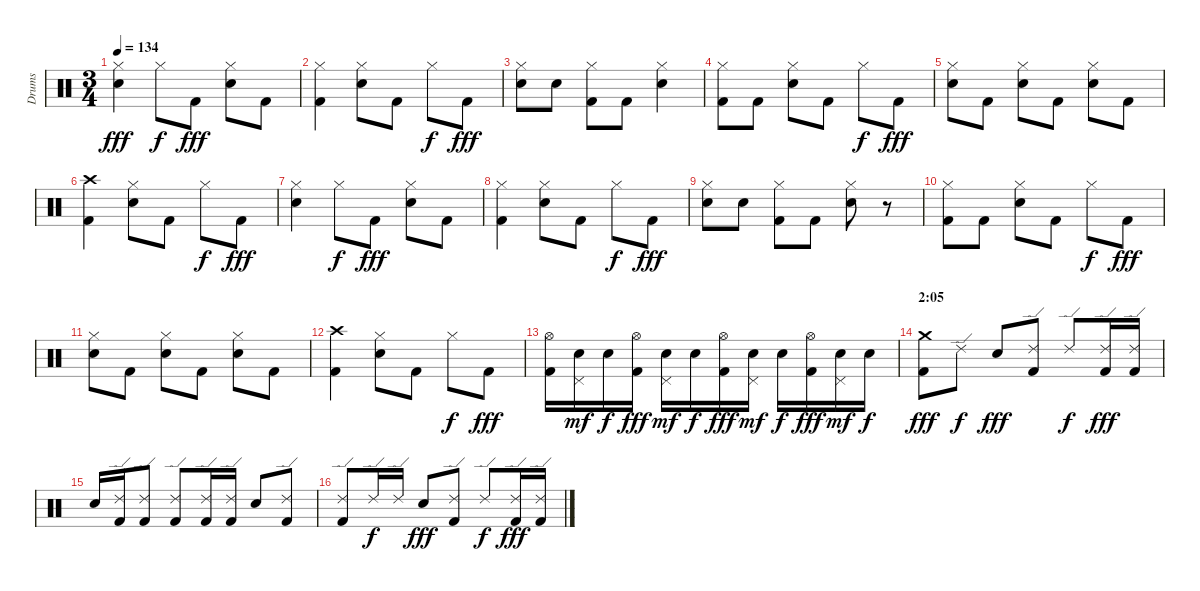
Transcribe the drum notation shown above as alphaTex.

\track ("Drums" "Drums") {instrument percussion}
\staff {score}
\articulation defaults
\ts (3 4)
\tempo 134
\clef neutral
\ks c
("Hi-Hat (closed)" "Snare (hit) 2").4{dy fff} "Hi-Hat (closed)".8{dy f} "Kick (hit) 2".8{dy fff} ("Hi-Hat (closed)" "Snare (hit) 2").8 "Kick (hit) 2".8 |
("Hi-Hat (closed)" "Kick (hit) 2").4 ("Hi-Hat (closed)" "Snare (hit) 2").8 "Kick (hit) 2".8 "Hi-Hat (closed)".8{dy f} "Kick (hit) 2".8{dy fff} |
("Hi-Hat (closed)" "Snare (hit) 2").8 "Snare (hit) 2".8 ("Hi-Hat (closed)" "Kick (hit) 2").8 "Kick (hit) 2".8 ("Hi-Hat (closed)" "Snare (hit) 2").4 |
("Hi-Hat (closed)" "Kick (hit) 2").8 "Kick (hit) 2".8 ("Hi-Hat (closed)" "Snare (hit) 2").8 "Kick (hit) 2".8 "Hi-Hat (closed)".8{dy f} "Kick (hit) 2".8{dy fff} |
("Hi-Hat (closed)" "Snare (hit) 2").8 "Kick (hit) 2".8 ("Hi-Hat (closed)" "Snare (hit) 2").8 "Kick (hit) 2".8 ("Hi-Hat (closed)" "Snare (hit) 2").8 "Kick (hit) 2".8 |
("Kick (hit) 2" "Crash high (hit)").4 ("Hi-Hat (closed)" "Snare (hit) 2").8 "Kick (hit) 2".8 "Hi-Hat (closed)".8{dy f} "Kick (hit) 2".8{dy fff} |
("Hi-Hat (closed)" "Snare (hit) 2").4 "Hi-Hat (closed)".8{dy f} "Kick (hit) 2".8{dy fff} ("Hi-Hat (closed)" "Snare (hit) 2").8 "Kick (hit) 2".8 |
("Hi-Hat (closed)" "Kick (hit) 2").4 ("Hi-Hat (closed)" "Snare (hit) 2").8 "Kick (hit) 2".8 "Hi-Hat (closed)".8{dy f} "Kick (hit) 2".8{dy fff} |
("Hi-Hat (closed)" "Snare (hit) 2").8 "Snare (hit) 2".8 ("Hi-Hat (closed)" "Kick (hit) 2").8 "Kick (hit) 2".8 ("Hi-Hat (closed)" "Snare (hit) 2").8 r.8 |
("Hi-Hat (closed)" "Kick (hit) 2").8 "Kick (hit) 2".8 ("Hi-Hat (closed)" "Snare (hit) 2").8 "Kick (hit) 2".8 "Hi-Hat (closed)".8{dy f} "Kick (hit) 2".8{dy fff} |
("Hi-Hat (closed)" "Snare (hit) 2").8 "Kick (hit) 2".8 ("Hi-Hat (closed)" "Snare (hit) 2").8 "Kick (hit) 2".8 ("Hi-Hat (closed)" "Snare (hit) 2").8 "Kick (hit) 2".8 |
("Kick (hit) 2" "Crash high (hit)").4 ("Hi-Hat (closed)" "Snare (hit) 2").8 "Kick (hit) 2".8 "Hi-Hat (closed)".8{dy f} "Kick (hit) 2".8{dy fff} |
("Hi-Hat (open)" "Kick (hit) 2").16 ("Pedal Hi-Hat (hit)" "Snare (hit) 2").16{dy mf} "Snare (hit) 2".16{dy f} ("Hi-Hat (open)" "Kick (hit) 2").16{dy fff} ("Pedal Hi-Hat (hit)" "Snare (hit) 2").16{dy mf} "Snare (hit) 2".16{dy f} ("Hi-Hat (open)" "Kick (hit) 2").16{dy fff} ("Pedal Hi-Hat (hit)" "Snare (hit) 2").16{dy mf} "Snare (hit) 2".16{dy f} ("Hi-Hat (open)" "Kick (hit) 2").16{dy fff} ("Pedal Hi-Hat (hit)" "Snare (hit) 2").16{dy mf} "Snare (hit) 2".16{dy f} |
\section ("" "2:05")
("Crash medium (hit)" "Kick (hit) 2").8{dy fff} "Ride (edge) 2".8{dy f} "Snare (hit) 2".8{dy fff} ("Ride (edge) 2" "Kick (hit) 2").8 "Ride (edge) 2".8{dy f} ("Ride (edge) 2" "Kick (hit) 2").16{dy fff} ("Ride (edge) 2" "Kick (hit) 2").16 |
"Snare (hit) 2".16 ("Ride (edge) 2" "Kick (hit) 2").16 ("Ride (edge) 2" "Kick (hit) 2").8 ("Ride (edge) 2" "Kick (hit) 2").8 ("Ride (edge) 2" "Kick (hit) 2").16 ("Ride (edge) 2" "Kick (hit) 2").16 "Snare (hit) 2".8 ("Ride (edge) 2" "Kick (hit) 2").8 |
("Ride (edge) 2" "Kick (hit) 2").8 "Ride (edge) 2".16{dy f} "Ride (edge) 2".16 "Snare (hit) 2".8{dy fff} ("Ride (edge) 2" "Kick (hit) 2").8 "Ride (edge) 2".8{dy f} ("Ride (edge) 2" "Kick (hit) 2").16{dy fff} ("Ride (edge) 2" "Kick (hit) 2").16
